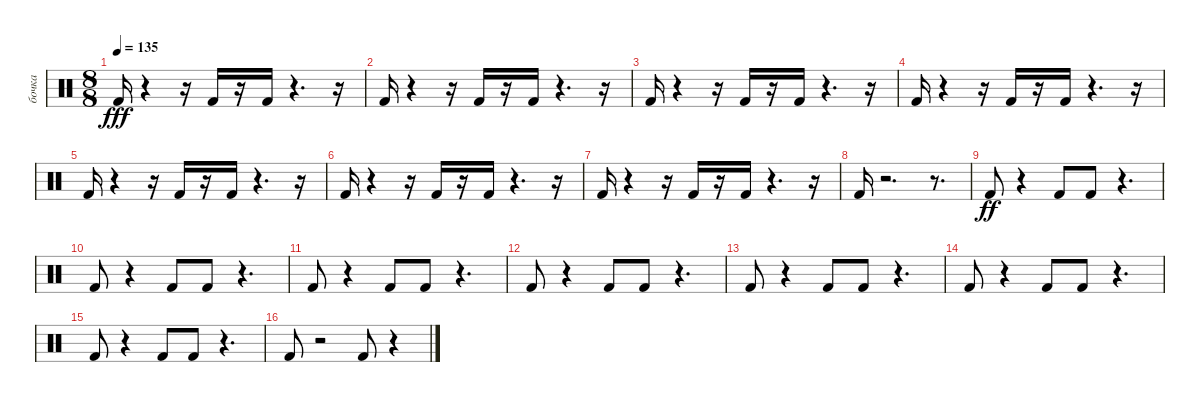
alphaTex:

\track ("бочка" "бочка") {instrument percussion}
\staff {score}
\articulation defaults
\ts (8 8)
\tempo 135
\clef neutral
\ks c "Kick (hit) 2".16{dy fff}
r.4 r.16 "Kick (hit) 2".16 r.16 "Kick (hit) 2".16 r.4{d} r.16 |
"Kick (hit) 2".16 r.4 r.16 "Kick (hit) 2".16 r.16 "Kick (hit) 2".16 r.4{d} r.16 |
"Kick (hit) 2".16 r.4 r.16 "Kick (hit) 2".16 r.16 "Kick (hit) 2".16 r.4{d} r.16 |
"Kick (hit) 2".16 r.4 r.16 "Kick (hit) 2".16 r.16 "Kick (hit) 2".16 r.4{d} r.16 |
"Kick (hit) 2".16 r.4 r.16 "Kick (hit) 2".16 r.16 "Kick (hit) 2".16 r.4{d} r.16 |
"Kick (hit) 2".16 r.4 r.16 "Kick (hit) 2".16 r.16 "Kick (hit) 2".16 r.4{d} r.16 |
"Kick (hit) 2".16 r.4 r.16 "Kick (hit) 2".16 r.16 "Kick (hit) 2".16 r.4{d} r.16 |
"Kick (hit) 2".16 r.2{d} r.8{d} |
"Kick (hit) 2".8{dy ff} r.4 "Kick (hit) 2".8 "Kick (hit) 2".8 r.4{d} |
"Kick (hit) 2".8 r.4 "Kick (hit) 2".8 "Kick (hit) 2".8 r.4{d} |
"Kick (hit) 2".8 r.4 "Kick (hit) 2".8 "Kick (hit) 2".8 r.4{d} |
"Kick (hit) 2".8 r.4 "Kick (hit) 2".8 "Kick (hit) 2".8 r.4{d} |
"Kick (hit) 2".8 r.4 "Kick (hit) 2".8 "Kick (hit) 2".8 r.4{d} |
"Kick (hit) 2".8 r.4 "Kick (hit) 2".8 "Kick (hit) 2".8 r.4{d} |
"Kick (hit) 2".8{volume 16} r.4 "Kick (hit) 2".8{volume 16} "Kick (hit) 2".8 r.4{d} |
"Kick (hit) 2".8{volume 15} r.2 "Kick (hit) 2".8{volume 14} r.4
